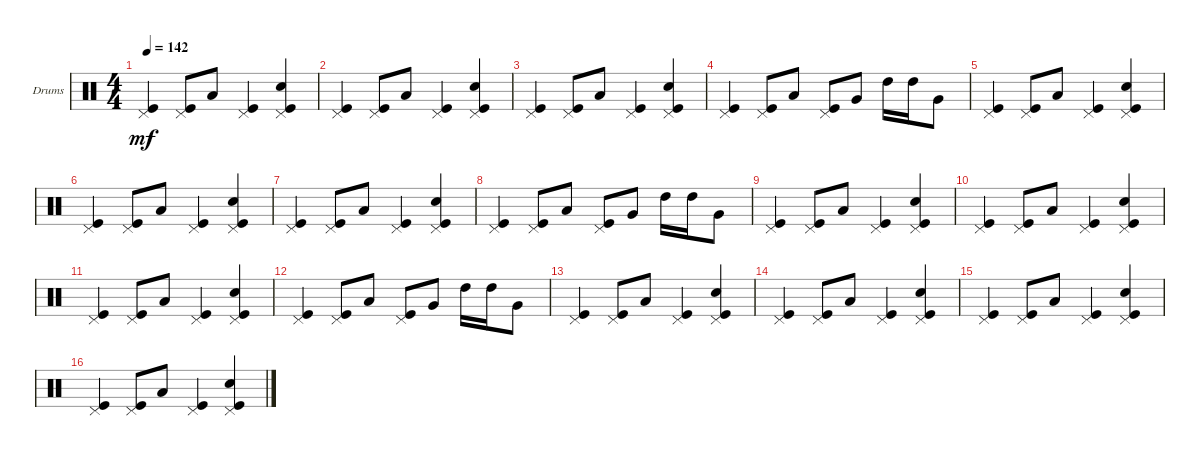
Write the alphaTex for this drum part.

\defaultSystemsLayout 4
\bracketExtendMode groupsimilarinstruments
\firstSystemTrackNameOrientation horizontal
\otherSystemsTrackNameOrientation horizontal
\track ("Drumkit" "Drums") {instrument percussion}
\staff {score}
\articulation defaults
\ts (4 4)
\tempo 142
\clef neutral
\scale
0.333333
\ks c
("Kick (hit)" "Pedal Hi-Hat (hit)").4{dy mf} ("Pedal Hi-Hat (hit)" "Kick (hit)").8 "Low Tom (hit)".8 ("Kick (hit)" "Pedal Hi-Hat (hit)").4 ("Snare (hit) 2" "Kick (hit)" "Pedal Hi-Hat (hit)").4 |
\scale
0.333333 ("Kick (hit)" "Pedal Hi-Hat (hit)").4 ("Pedal Hi-Hat (hit)" "Kick (hit)").8 "Low Tom (hit)".8 ("Kick (hit)" "Pedal Hi-Hat (hit)").4 ("Snare (hit) 2" "Kick (hit)" "Pedal Hi-Hat (hit)").4 |
\scale
0.333333 ("Kick (hit)" "Pedal Hi-Hat (hit)").4 ("Pedal Hi-Hat (hit)" "Kick (hit)").8 "Low Tom (hit)".8 ("Kick (hit)" "Pedal Hi-Hat (hit)").4 ("Snare (hit) 2" "Kick (hit)" "Pedal Hi-Hat (hit)").4 |
\scale
0.333333 ("Kick (hit)" "Pedal Hi-Hat (hit)").4 ("Pedal Hi-Hat (hit)" "Kick (hit)").8 "Low Tom (hit)".8 ("Kick (hit)" "Pedal Hi-Hat (hit)").8 "Very Low Tom (hit)".8 "High Tom (hit)".16 "High Tom (hit)".16 "Very Low Tom (hit)".8 |
\scale
0.333333 ("Kick (hit)" "Pedal Hi-Hat (hit)").4 ("Pedal Hi-Hat (hit)" "Kick (hit)").8 "Low Tom (hit)".8 ("Kick (hit)" "Pedal Hi-Hat (hit)").4 ("Snare (hit) 2" "Kick (hit)" "Pedal Hi-Hat (hit)").4 |
\scale
0.333333 ("Kick (hit)" "Pedal Hi-Hat (hit)").4 ("Pedal Hi-Hat (hit)" "Kick (hit)").8 "Low Tom (hit)".8 ("Kick (hit)" "Pedal Hi-Hat (hit)").4 ("Snare (hit) 2" "Kick (hit)" "Pedal Hi-Hat (hit)").4 |
\scale
0.333333 ("Kick (hit)" "Pedal Hi-Hat (hit)").4 ("Pedal Hi-Hat (hit)" "Kick (hit)").8 "Low Tom (hit)".8 ("Kick (hit)" "Pedal Hi-Hat (hit)").4 ("Snare (hit) 2" "Kick (hit)" "Pedal Hi-Hat (hit)").4 |
\scale
0.333333 ("Kick (hit)" "Pedal Hi-Hat (hit)").4 ("Pedal Hi-Hat (hit)" "Kick (hit)").8 "Low Tom (hit)".8 ("Kick (hit)" "Pedal Hi-Hat (hit)").8 "Very Low Tom (hit)".8 "High Tom (hit)".16 "High Tom (hit)".16 "Very Low Tom (hit)".8 |
\scale
0.333333 ("Kick (hit)" "Pedal Hi-Hat (hit)").4 ("Pedal Hi-Hat (hit)" "Kick (hit)").8 "Low Tom (hit)".8 ("Kick (hit)" "Pedal Hi-Hat (hit)").4 ("Snare (hit) 2" "Kick (hit)" "Pedal Hi-Hat (hit)").4 |
\scale
0.333333 ("Kick (hit)" "Pedal Hi-Hat (hit)").4 ("Pedal Hi-Hat (hit)" "Kick (hit)").8 "Low Tom (hit)".8 ("Kick (hit)" "Pedal Hi-Hat (hit)").4 ("Snare (hit) 2" "Kick (hit)" "Pedal Hi-Hat (hit)").4 |
\scale
0.333333 ("Kick (hit)" "Pedal Hi-Hat (hit)").4 ("Pedal Hi-Hat (hit)" "Kick (hit)").8 "Low Tom (hit)".8 ("Kick (hit)" "Pedal Hi-Hat (hit)").4 ("Snare (hit) 2" "Kick (hit)" "Pedal Hi-Hat (hit)").4 |
\scale
0.333333 ("Kick (hit)" "Pedal Hi-Hat (hit)").4 ("Pedal Hi-Hat (hit)" "Kick (hit)").8 "Low Tom (hit)".8 ("Kick (hit)" "Pedal Hi-Hat (hit)").8 "Very Low Tom (hit)".8 "High Tom (hit)".16 "High Tom (hit)".16 "Very Low Tom (hit)".8 |
\scale
0.333333 ("Kick (hit)" "Pedal Hi-Hat (hit)").4 ("Pedal Hi-Hat (hit)" "Kick (hit)").8 "Low Tom (hit)".8 ("Kick (hit)" "Pedal Hi-Hat (hit)").4 ("Snare (hit) 2" "Kick (hit)" "Pedal Hi-Hat (hit)").4 |
\scale
0.333333 ("Kick (hit)" "Pedal Hi-Hat (hit)").4 ("Pedal Hi-Hat (hit)" "Kick (hit)").8 "Low Tom (hit)".8 ("Kick (hit)" "Pedal Hi-Hat (hit)").4 ("Snare (hit) 2" "Kick (hit)" "Pedal Hi-Hat (hit)").4 |
\scale
0.333333 ("Kick (hit)" "Pedal Hi-Hat (hit)").4 ("Pedal Hi-Hat (hit)" "Kick (hit)").8 "Low Tom (hit)".8 ("Kick (hit)" "Pedal Hi-Hat (hit)").4 ("Snare (hit) 2" "Kick (hit)" "Pedal Hi-Hat (hit)").4 |
\scale
0.333333 ("Kick (hit)" "Pedal Hi-Hat (hit)").4 ("Pedal Hi-Hat (hit)" "Kick (hit)").8 "Low Tom (hit)".8 ("Kick (hit)" "Pedal Hi-Hat (hit)").4 ("Snare (hit) 2" "Kick (hit)" "Pedal Hi-Hat (hit)").4
